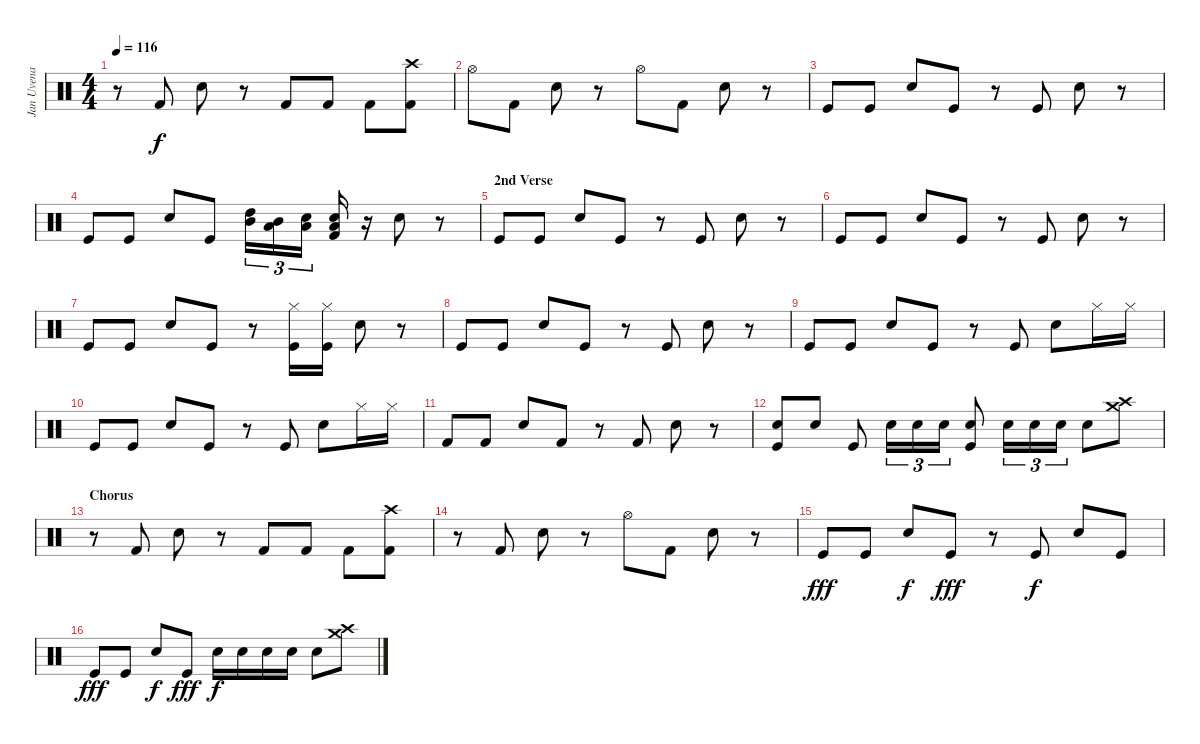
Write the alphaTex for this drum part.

\track ("Jan Uvena" "Jan Uvena") {instrument percussion}
\staff {score}
\articulation defaults
\ts (4 4)
\tempo 116
\clef neutral
\ks c
r.8{dy f} "Kick (hit) 2".8 "Snare (hit) 2".8 r.8 "Kick (hit) 2".8 "Kick (hit) 2".8 "Kick (hit) 2".8 ("Crash high (hit)" "Kick (hit) 2").8 |
"Hi-Hat (open)".8 "Kick (hit) 2".8 "Snare (hit) 2".8 r.8 "Hi-Hat (open)".8 "Kick (hit) 2".8 "Snare (hit) 2".8 r.8 |
"Kick (hit)".8 "Kick (hit)".8 "Snare (hit) 2".8 "Kick (hit)".8 r.8 "Kick (hit)".8 "Snare (hit) 2".8 r.8 |
"Kick (hit)".8 "Kick (hit)".8 "Snare (hit) 2".8 "Kick (hit)".8 ("High Tom (hit)" "Mid Tom (hit)").16{tu (3 2)} ("Mid Tom (hit)" "Low Tom (hit)").16{tu (3 2)} ("Low Tom (hit)" "Snare (hit) 2").16{tu (3 2)} ("Low Tom (hit)" "Snare (hit) 2" "Kick (hit) 2").16 r.16 "Snare (hit) 2".8 r.8 |
\section ("" "2nd Verse")
"Kick (hit)".8 "Kick (hit)".8 "Snare (hit) 2".8 "Kick (hit)".8 r.8 "Kick (hit)".8 "Snare (hit) 2".8 r.8 |
"Kick (hit)".8 "Kick (hit)".8 "Snare (hit) 2".8 "Kick (hit)".8 r.8 "Kick (hit)".8 "Snare (hit) 2".8 r.8 |
"Kick (hit)".8 "Kick (hit)".8 "Snare (hit) 2".8 "Kick (hit)".8 r.8 ("Hi-Hat (closed)" "Kick (hit)").16 ("Hi-Hat (closed)" "Kick (hit)").16 "Snare (hit) 2".8 r.8 |
"Kick (hit)".8 "Kick (hit)".8 "Snare (hit) 2".8 "Kick (hit)".8 r.8 "Kick (hit)".8 "Snare (hit) 2".8 r.8 |
"Kick (hit)".8 "Kick (hit)".8 "Snare (hit) 2".8 "Kick (hit)".8 r.8 "Kick (hit)".8 "Snare (hit) 2".8 "Hi-Hat (closed)".16 "Hi-Hat (closed)".16 |
"Kick (hit)".8 "Kick (hit)".8 "Snare (hit) 2".8 "Kick (hit)".8 r.8 "Kick (hit)".8 "Snare (hit) 2".8 "Hi-Hat (closed)".16 "Hi-Hat (closed)".16 |
"Kick (hit) 2".8 "Kick (hit) 2".8 "Snare (hit) 2".8 "Kick (hit) 2".8 r.8 "Kick (hit) 2".8 "Snare (hit) 2".8 r.8 |
("Snare (hit) 2" "Kick (hit)").8 "Snare (hit) 2".8 "Kick (hit)".8 "Snare (hit) 2".16{tu (3 2)} "Snare (hit) 2".16{tu (3 2)} "Snare (hit) 2".16{tu (3 2)} ("Snare (hit) 2" "Kick (hit)").8 "Snare (hit) 2".16{tu (3 2)} "Snare (hit) 2".16{tu (3 2)} "Snare (hit) 2".16{tu (3 2)} "Snare (hit) 2".8 ("Crash medium (hit)" "Crash high (hit)").8 |
\section ("" "Chorus")
r.8 "Kick (hit) 2".8 "Snare (hit) 2".8 r.8 "Kick (hit) 2".8 "Kick (hit) 2".8 "Kick (hit) 2".8 ("Crash high (hit)" "Kick (hit) 2").8 |
r.8 "Kick (hit) 2".8 "Snare (hit) 2".8 r.8 "Hi-Hat (open)".8 "Kick (hit) 2".8 "Snare (hit) 2".8 r.8 |
"Kick (hit)".8{dy fff} "Kick (hit)".8 "Snare (hit) 2".8{dy f} "Kick (hit)".8{dy fff} r.8 "Kick (hit)".8{dy f} "Snare (hit) 2".8 "Kick (hit)".8 |
"Kick (hit)".8{dy fff} "Kick (hit)".8 "Snare (hit) 2".8{dy f} "Kick (hit)".8{dy fff} "Snare (hit) 2".16{dy f} "Snare (hit) 2".16 "Snare (hit) 2".16 "Snare (hit) 2".16 "Snare (hit) 2".8 ("Crash medium (hit)" "Crash high (hit)").8
